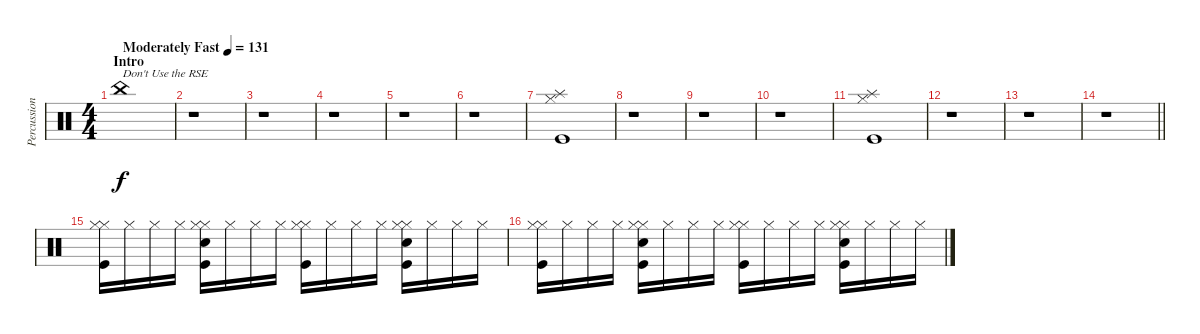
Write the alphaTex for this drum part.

\track ("Percussion I" "Percussion") {instrument percussion}
\staff {score}
\articulation defaults
\ts (4 4)
\section ("" "Intro")
\tempo (131 "Moderately Fast")
\clef neutral
\ks c "China (hit)".1{txt "Don't Use the RSE" dy f}
|
r.1 |
r.1 |
r.1 |
r.1 |
r.1 |
("Splash (hit)" "Hi-Hat (closed)" "Kick (hit)").1 |
r.1 |
r.1 |
r.1 |
("Splash (hit)" "Hi-Hat (closed)" "Kick (hit)").1 |
r.1 |
r.1 |
\barLineRight lightlight
r.1 |
\section ("" "")
("Hi-Hat (closed)" "Hi-Hat (closed)" "Kick (hit)").16 "Hi-Hat (closed)".16 "Hi-Hat (closed)".16 "Hi-Hat (closed)".16 ("Hi-Hat (closed)" "Hand Clap (hit)" "Hi-Hat (closed)" "Kick (hit)").16 "Hi-Hat (closed)".16 "Hi-Hat (closed)".16 "Hi-Hat (closed)".16 ("Hi-Hat (closed)" "Hi-Hat (closed)" "Kick (hit)").16 "Hi-Hat (closed)".16 "Hi-Hat (closed)".16 "Hi-Hat (closed)".16 ("Hi-Hat (closed)" "Hand Clap (hit)" "Hi-Hat (closed)" "Kick (hit)").16 "Hi-Hat (closed)".16 "Hi-Hat (closed)".16 "Hi-Hat (closed)".16 |
("Hi-Hat (closed)" "Hi-Hat (closed)" "Kick (hit)").16 "Hi-Hat (closed)".16 "Hi-Hat (closed)".16 "Hi-Hat (closed)".16 ("Hi-Hat (closed)" "Hand Clap (hit)" "Hi-Hat (closed)" "Kick (hit)").16 "Hi-Hat (closed)".16 "Hi-Hat (closed)".16 "Hi-Hat (closed)".16 ("Hi-Hat (closed)" "Hi-Hat (closed)" "Kick (hit)").16 "Hi-Hat (closed)".16 "Hi-Hat (closed)".16 "Hi-Hat (closed)".16 ("Hi-Hat (closed)" "Hand Clap (hit)" "Hi-Hat (closed)" "Kick (hit)").16 "Hi-Hat (closed)".16 "Hi-Hat (closed)".16 "Hi-Hat (closed)".16
